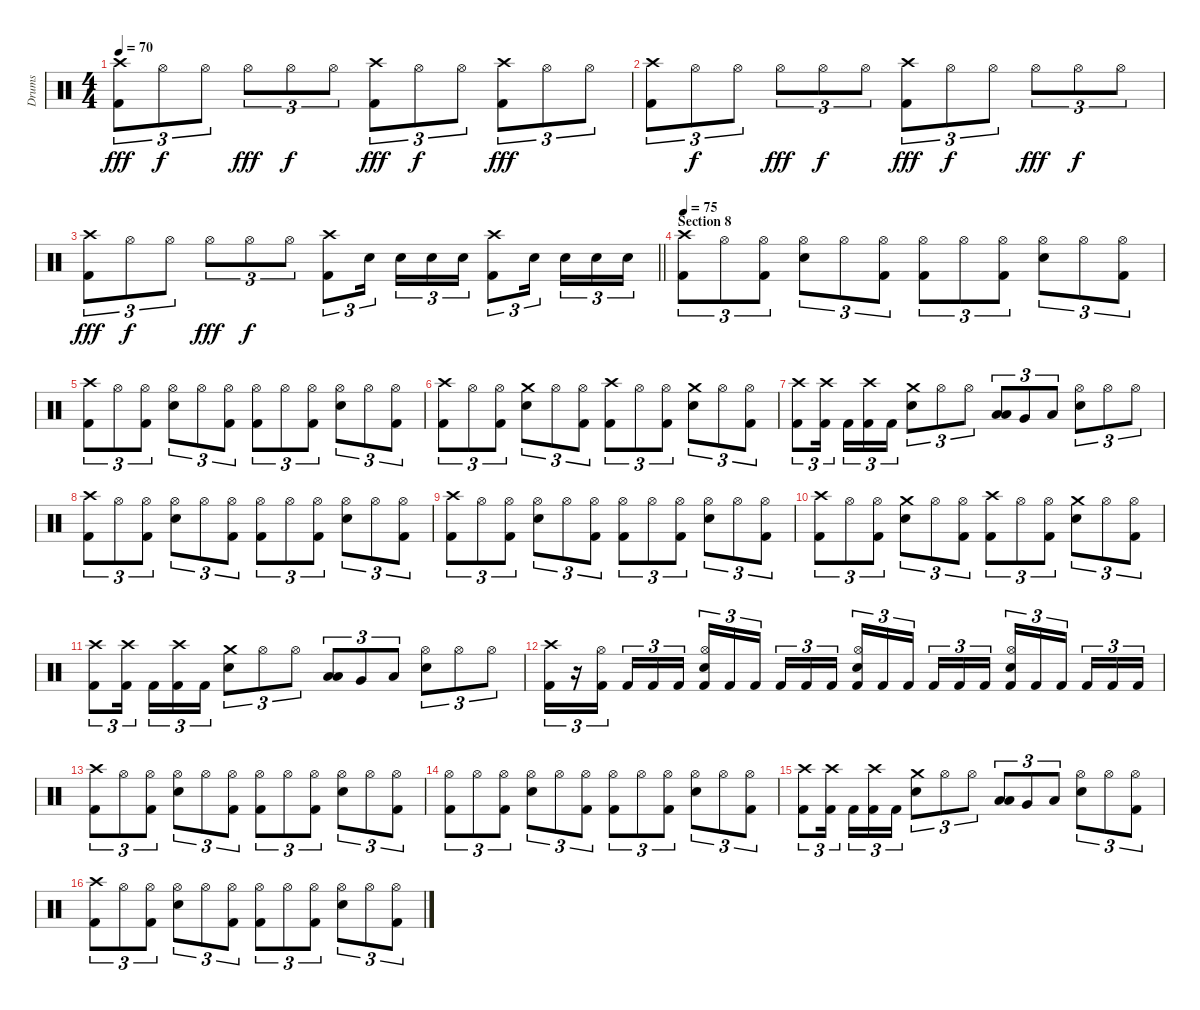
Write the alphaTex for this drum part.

\track ("Drums" "Drums") {instrument percussion}
\staff {score}
\articulation defaults
\ts (4 4)
\tempo 70
\clef neutral
\ks c
("Crash high (hit)" "Kick (hit) 2").8{tu (3 2) dy fff} "Hi-Hat (open)".8{tu (3 2) dy f} "Hi-Hat (open)".8{tu (3 2)} "Hi-Hat (open)".8{tu (3 2) dy fff} "Hi-Hat (open)".8{tu (3 2) dy f} "Hi-Hat (open)".8{tu (3 2)} ("Crash high (hit)" "Kick (hit) 2").8{tu (3 2) dy fff} "Hi-Hat (open)".8{tu (3 2) dy f} "Hi-Hat (open)".8{tu (3 2)} ("Crash high (hit)" "Kick (hit) 2").8{tu (3 2) dy fff} "Hi-Hat (open)".8{tu (3 2)} "Hi-Hat (open)".8{tu (3 2)} |
("Crash high (hit)" "Kick (hit) 2").8{tu (3 2)} "Hi-Hat (open)".8{tu (3 2) dy f} "Hi-Hat (open)".8{tu (3 2)} "Hi-Hat (open)".8{tu (3 2) dy fff} "Hi-Hat (open)".8{tu (3 2) dy f} "Hi-Hat (open)".8{tu (3 2)} ("Crash high (hit)" "Kick (hit) 2").8{tu (3 2) dy fff} "Hi-Hat (open)".8{tu (3 2) dy f} "Hi-Hat (open)".8{tu (3 2)} "Hi-Hat (open)".8{tu (3 2) dy fff} "Hi-Hat (open)".8{tu (3 2) dy f} "Hi-Hat (open)".8{tu (3 2)} |
\barLineRight lightlight
("Crash high (hit)" "Kick (hit) 2").8{tu (3 2) dy fff} "Hi-Hat (open)".8{tu (3 2) dy f} "Hi-Hat (open)".8{tu (3 2)} "Hi-Hat (open)".8{tu (3 2) dy fff} "Hi-Hat (open)".8{tu (3 2) dy f} "Hi-Hat (open)".8{tu (3 2)} ("Crash high (hit)" "Kick (hit) 2").8{tu (3 2)} "Electric Snare (hit)".16{tu (3 2)} "Electric Snare (hit)".16{tu (3 2)} "Electric Snare (hit)".16{tu (3 2)} "Electric Snare (hit)".16{tu (3 2)} ("Crash high (hit)" "Kick (hit) 2").8{tu (3 2)} "Electric Snare (hit)".16{tu (3 2)} "Electric Snare (hit)".16{tu (3 2)} "Electric Snare (hit)".16{tu (3 2)} "Electric Snare (hit)".16{tu (3 2)} |
\section ("" "Section 8")
\tempo 75
("Crash high (hit)" "Kick (hit) 2").8{tu (3 2)} "Hi-Hat (open)".8{tu (3 2)} ("Hi-Hat (open)" "Kick (hit) 2").8{tu (3 2)} ("Hi-Hat (open)" "Electric Snare (hit)").8{tu (3 2)} "Hi-Hat (open)".8{tu (3 2)} ("Hi-Hat (open)" "Kick (hit) 2").8{tu (3 2)} ("Hi-Hat (open)" "Kick (hit) 2").8{tu (3 2)} "Hi-Hat (open)".8{tu (3 2)} ("Hi-Hat (open)" "Kick (hit) 2").8{tu (3 2)} ("Hi-Hat (open)" "Electric Snare (hit)").8{tu (3 2)} "Hi-Hat (open)".8{tu (3 2)} ("Hi-Hat (open)" "Kick (hit) 2").8{tu (3 2)} |
("Crash high (hit)" "Kick (hit) 2").8{tu (3 2)} "Hi-Hat (open)".8{tu (3 2)} ("Hi-Hat (open)" "Kick (hit) 2").8{tu (3 2)} ("Hi-Hat (open)" "Electric Snare (hit)").8{tu (3 2)} "Hi-Hat (open)".8{tu (3 2)} ("Hi-Hat (open)" "Kick (hit) 2").8{tu (3 2)} ("Hi-Hat (open)" "Kick (hit) 2").8{tu (3 2)} "Hi-Hat (open)".8{tu (3 2)} ("Hi-Hat (open)" "Kick (hit) 2").8{tu (3 2)} ("Hi-Hat (open)" "Electric Snare (hit)").8{tu (3 2)} "Hi-Hat (open)".8{tu (3 2)} ("Hi-Hat (open)" "Kick (hit) 2").8{tu (3 2)} |
("Crash high (hit)" "Kick (hit) 2").8{tu (3 2)} "Hi-Hat (open)".8{tu (3 2)} ("Hi-Hat (open)" "Kick (hit) 2").8{tu (3 2)} ("Crash medium (hit)" "Electric Snare (hit)").8{tu (3 2)} "Hi-Hat (open)".8{tu (3 2)} ("Hi-Hat (open)" "Kick (hit) 2").8{tu (3 2)} ("Crash high (hit)" "Kick (hit) 2").8{tu (3 2)} "Hi-Hat (open)".8{tu (3 2)} ("Hi-Hat (open)" "Kick (hit) 2").8{tu (3 2)} ("Crash medium (hit)" "Electric Snare (hit)").8{tu (3 2)} "Hi-Hat (open)".8{tu (3 2)} ("Hi-Hat (open)" "Kick (hit) 2").8{tu (3 2)} |
("Crash high (hit)" "Kick (hit) 2").8{tu (3 2)} ("Crash high (hit)" "Kick (hit) 2").16{tu (3 2)} "Kick (hit) 2".16{tu (3 2)} ("Crash high (hit)" "Kick (hit) 2").16{tu (3 2)} "Kick (hit) 2".16{tu (3 2)} ("Crash medium (hit)" "Electric Snare (hit)").8{tu (3 2)} "Hi-Hat (open)".8{tu (3 2)} "Hi-Hat (open)".8{tu (3 2)} ("Low Tom (hit)" "Low Tom (hit)").8{tu (3 2) bu 60} "Very Low Tom (hit)".8{tu (3 2)} "Low Floor Tom (hit)".8{tu (3 2)} ("Hi-Hat (open)" "Electric Snare (hit)").8{tu (3 2)} "Hi-Hat (open)".8{tu (3 2)} "Hi-Hat (open)".8{tu (3 2)} |
("Crash high (hit)" "Kick (hit) 2").8{tu (3 2)} "Hi-Hat (open)".8{tu (3 2)} ("Hi-Hat (open)" "Kick (hit) 2").8{tu (3 2)} ("Hi-Hat (open)" "Electric Snare (hit)").8{tu (3 2)} "Hi-Hat (open)".8{tu (3 2)} ("Hi-Hat (open)" "Kick (hit) 2").8{tu (3 2)} ("Hi-Hat (open)" "Kick (hit) 2").8{tu (3 2)} "Hi-Hat (open)".8{tu (3 2)} ("Hi-Hat (open)" "Kick (hit) 2").8{tu (3 2)} ("Hi-Hat (open)" "Electric Snare (hit)").8{tu (3 2)} "Hi-Hat (open)".8{tu (3 2)} ("Hi-Hat (open)" "Kick (hit) 2").8{tu (3 2)} |
("Crash high (hit)" "Kick (hit) 2").8{tu (3 2)} "Hi-Hat (open)".8{tu (3 2)} ("Hi-Hat (open)" "Kick (hit) 2").8{tu (3 2)} ("Hi-Hat (open)" "Electric Snare (hit)").8{tu (3 2)} "Hi-Hat (open)".8{tu (3 2)} ("Hi-Hat (open)" "Kick (hit) 2").8{tu (3 2)} ("Hi-Hat (open)" "Kick (hit) 2").8{tu (3 2)} "Hi-Hat (open)".8{tu (3 2)} ("Hi-Hat (open)" "Kick (hit) 2").8{tu (3 2)} ("Hi-Hat (open)" "Electric Snare (hit)").8{tu (3 2)} "Hi-Hat (open)".8{tu (3 2)} ("Hi-Hat (open)" "Kick (hit) 2").8{tu (3 2)} |
("Crash high (hit)" "Kick (hit) 2").8{tu (3 2)} "Hi-Hat (open)".8{tu (3 2)} ("Hi-Hat (open)" "Kick (hit) 2").8{tu (3 2)} ("Crash medium (hit)" "Electric Snare (hit)").8{tu (3 2)} "Hi-Hat (open)".8{tu (3 2)} ("Hi-Hat (open)" "Kick (hit) 2").8{tu (3 2)} ("Crash high (hit)" "Kick (hit) 2").8{tu (3 2)} "Hi-Hat (open)".8{tu (3 2)} ("Hi-Hat (open)" "Kick (hit) 2").8{tu (3 2)} ("Crash medium (hit)" "Electric Snare (hit)").8{tu (3 2)} "Hi-Hat (open)".8{tu (3 2)} ("Hi-Hat (open)" "Kick (hit) 2").8{tu (3 2)} |
("Crash high (hit)" "Kick (hit) 2").8{tu (3 2)} ("Crash high (hit)" "Kick (hit) 2").16{tu (3 2)} "Kick (hit) 2".16{tu (3 2)} ("Crash high (hit)" "Kick (hit) 2").16{tu (3 2)} "Kick (hit) 2".16{tu (3 2)} ("Crash medium (hit)" "Electric Snare (hit)").8{tu (3 2)} "Hi-Hat (open)".8{tu (3 2)} "Hi-Hat (open)".8{tu (3 2)} ("Low Tom (hit)" "Low Tom (hit)").8{tu (3 2) bu 60} "Very Low Tom (hit)".8{tu (3 2)} "Low Floor Tom (hit)".8{tu (3 2)} ("Hi-Hat (open)" "Electric Snare (hit)").8{tu (3 2)} "Hi-Hat (open)".8{tu (3 2)} "Hi-Hat (open)".8{tu (3 2)} |
("Crash high (hit)" "Kick (hit) 2").16{tu (3 2)} r.16{tu (3 2)} ("Hi-Hat (open)" "Kick (hit) 2").16{tu (3 2)} "Kick (hit) 2".16{tu (3 2)} "Kick (hit) 2".16{tu (3 2)} "Kick (hit) 2".16{tu (3 2)} ("Hi-Hat (open)" "Electric Snare (hit)" "Kick (hit) 2").16{tu (3 2)} "Kick (hit) 2".16{tu (3 2)} "Kick (hit) 2".16{tu (3 2)} "Kick (hit) 2".16{tu (3 2)} "Kick (hit) 2".16{tu (3 2)} "Kick (hit) 2".16{tu (3 2)} ("Hi-Hat (open)" "Electric Snare (hit)" "Kick (hit) 2").16{tu (3 2)} "Kick (hit) 2".16{tu (3 2)} "Kick (hit) 2".16{tu (3 2)} "Kick (hit) 2".16{tu (3 2)} "Kick (hit) 2".16{tu (3 2)} "Kick (hit) 2".16{tu (3 2)} ("Hi-Hat (open)" "Electric Snare (hit)" "Kick (hit) 2").16{tu (3 2)} "Kick (hit) 2".16{tu (3 2)} "Kick (hit) 2".16{tu (3 2)} "Kick (hit) 2".16{tu (3 2)} "Kick (hit) 2".16{tu (3 2)} "Kick (hit) 2".16{tu (3 2)} |
("Crash high (hit)" "Kick (hit) 2").8{tu (3 2)} "Hi-Hat (open)".8{tu (3 2)} ("Hi-Hat (open)" "Kick (hit) 2").8{tu (3 2)} ("Hi-Hat (open)" "Electric Snare (hit)").8{tu (3 2)} "Hi-Hat (open)".8{tu (3 2)} ("Hi-Hat (open)" "Kick (hit) 2").8{tu (3 2)} ("Hi-Hat (open)" "Kick (hit) 2").8{tu (3 2)} "Hi-Hat (open)".8{tu (3 2)} ("Hi-Hat (open)" "Kick (hit) 2").8{tu (3 2)} ("Hi-Hat (open)" "Electric Snare (hit)").8{tu (3 2)} "Hi-Hat (open)".8{tu (3 2)} ("Hi-Hat (open)" "Kick (hit) 2").8{tu (3 2)} |
("Hi-Hat (open)" "Kick (hit) 2").8{tu (3 2)} "Hi-Hat (open)".8{tu (3 2)} ("Hi-Hat (open)" "Kick (hit) 2").8{tu (3 2)} ("Hi-Hat (open)" "Electric Snare (hit)").8{tu (3 2)} "Hi-Hat (open)".8{tu (3 2)} ("Hi-Hat (open)" "Kick (hit) 2").8{tu (3 2)} ("Hi-Hat (open)" "Kick (hit) 2").8{tu (3 2)} "Hi-Hat (open)".8{tu (3 2)} ("Hi-Hat (open)" "Kick (hit) 2").8{tu (3 2)} ("Hi-Hat (open)" "Electric Snare (hit)").8{tu (3 2)} "Hi-Hat (open)".8{tu (3 2)} ("Hi-Hat (open)" "Kick (hit) 2").8{tu (3 2)} |
("Crash high (hit)" "Kick (hit) 2").8{tu (3 2)} ("Crash high (hit)" "Kick (hit) 2").16{tu (3 2)} "Kick (hit) 2".16{tu (3 2)} ("Crash high (hit)" "Kick (hit) 2").16{tu (3 2)} "Kick (hit) 2".16{tu (3 2)} ("Crash medium (hit)" "Electric Snare (hit)").8{tu (3 2)} "Hi-Hat (open)".8{tu (3 2)} "Hi-Hat (open)".8{tu (3 2)} ("Low Tom (hit)" "Low Tom (hit)").8{tu (3 2) bu 60} "Very Low Tom (hit)".8{tu (3 2)} "Low Floor Tom (hit)".8{tu (3 2)} ("Hi-Hat (open)" "Electric Snare (hit)").8{tu (3 2)} "Hi-Hat (open)".8{tu (3 2)} ("Hi-Hat (open)" "Kick (hit) 2").8{tu (3 2)} |
("Crash high (hit)" "Kick (hit) 2").8{tu (3 2)} "Hi-Hat (open)".8{tu (3 2)} ("Hi-Hat (open)" "Kick (hit) 2").8{tu (3 2)} ("Hi-Hat (open)" "Electric Snare (hit)").8{tu (3 2)} "Hi-Hat (open)".8{tu (3 2)} ("Hi-Hat (open)" "Kick (hit) 2").8{tu (3 2)} ("Hi-Hat (open)" "Kick (hit) 2").8{tu (3 2)} "Hi-Hat (open)".8{tu (3 2)} ("Hi-Hat (open)" "Kick (hit) 2").8{tu (3 2)} ("Hi-Hat (open)" "Electric Snare (hit)").8{tu (3 2)} "Hi-Hat (open)".8{tu (3 2)} ("Hi-Hat (open)" "Kick (hit) 2").8{tu (3 2)}
